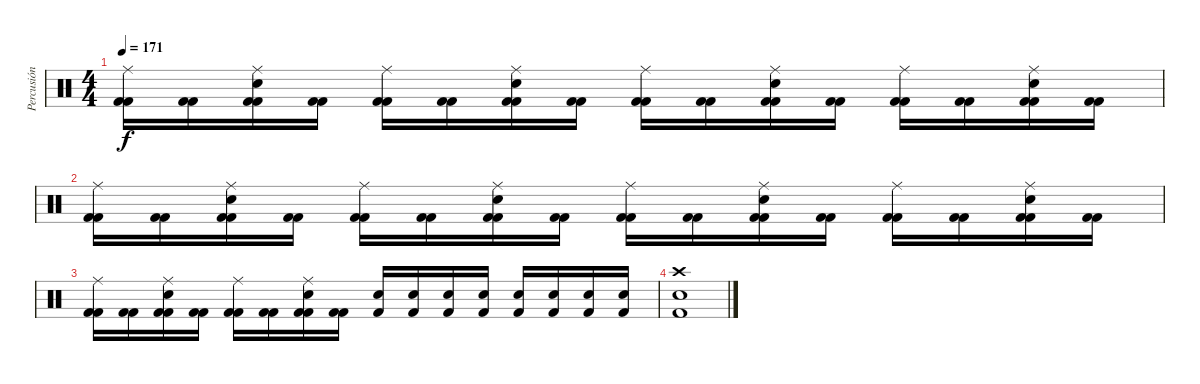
\track ("Percusión" "Percusión") {instrument percussion}
\staff {score}
\articulation defaults
\ts (4 4)
\tempo 171
\clef neutral
\ks c
("Kick (hit) 2" "Kick (hit) 2" "Ride (middle)").16{dy f} ("Kick (hit) 2" "Kick (hit) 2").16 ("Kick (hit) 2" "Kick (hit) 2" "Electric Snare (hit)" "Ride (middle)").16 ("Kick (hit) 2" "Kick (hit) 2").16 ("Kick (hit) 2" "Kick (hit) 2" "Ride (middle)").16 ("Kick (hit) 2" "Kick (hit) 2").16 ("Kick (hit) 2" "Kick (hit) 2" "Electric Snare (hit)" "Ride (middle)").16 ("Kick (hit) 2" "Kick (hit) 2").16 ("Kick (hit) 2" "Kick (hit) 2" "Ride (middle)").16 ("Kick (hit) 2" "Kick (hit) 2").16 ("Kick (hit) 2" "Kick (hit) 2" "Electric Snare (hit)" "Ride (middle)").16 ("Kick (hit) 2" "Kick (hit) 2").16 ("Kick (hit) 2" "Kick (hit) 2" "Ride (middle)").16 ("Kick (hit) 2" "Kick (hit) 2").16 ("Kick (hit) 2" "Kick (hit) 2" "Electric Snare (hit)" "Ride (middle)").16 ("Kick (hit) 2" "Kick (hit) 2").16 |
("Kick (hit) 2" "Kick (hit) 2" "Ride (middle)").16 ("Kick (hit) 2" "Kick (hit) 2").16 ("Kick (hit) 2" "Kick (hit) 2" "Electric Snare (hit)" "Ride (middle)").16 ("Kick (hit) 2" "Kick (hit) 2").16 ("Kick (hit) 2" "Kick (hit) 2" "Ride (middle)").16 ("Kick (hit) 2" "Kick (hit) 2").16 ("Kick (hit) 2" "Kick (hit) 2" "Electric Snare (hit)" "Ride (middle)").16 ("Kick (hit) 2" "Kick (hit) 2").16 ("Kick (hit) 2" "Kick (hit) 2" "Ride (middle)").16 ("Kick (hit) 2" "Kick (hit) 2").16 ("Kick (hit) 2" "Kick (hit) 2" "Electric Snare (hit)" "Ride (middle)").16 ("Kick (hit) 2" "Kick (hit) 2").16 ("Kick (hit) 2" "Kick (hit) 2" "Ride (middle)").16 ("Kick (hit) 2" "Kick (hit) 2").16 ("Kick (hit) 2" "Kick (hit) 2" "Electric Snare (hit)" "Ride (middle)").16 ("Kick (hit) 2" "Kick (hit) 2").16 |
("Kick (hit) 2" "Kick (hit) 2" "Ride (middle)").16 ("Kick (hit) 2" "Kick (hit) 2").16 ("Kick (hit) 2" "Kick (hit) 2" "Electric Snare (hit)" "Ride (middle)").16 ("Kick (hit) 2" "Kick (hit) 2").16 ("Kick (hit) 2" "Kick (hit) 2" "Ride (middle)").16 ("Kick (hit) 2" "Kick (hit) 2").16 ("Kick (hit) 2" "Kick (hit) 2" "Electric Snare (hit)" "Ride (middle)").16 ("Kick (hit) 2" "Kick (hit) 2").16 ("Kick (hit) 2" "Electric Snare (hit)").16 ("Kick (hit) 2" "Electric Snare (hit)").16 ("Kick (hit) 2" "Electric Snare (hit)").16 ("Kick (hit) 2" "Electric Snare (hit)").16 ("Kick (hit) 2" "Electric Snare (hit)").16 ("Kick (hit) 2" "Electric Snare (hit)").16 ("Kick (hit) 2" "Electric Snare (hit)").16 ("Kick (hit) 2" "Electric Snare (hit)").16 |
("Kick (hit) 2" "Electric Snare (hit)" "Crash high (hit)").1
